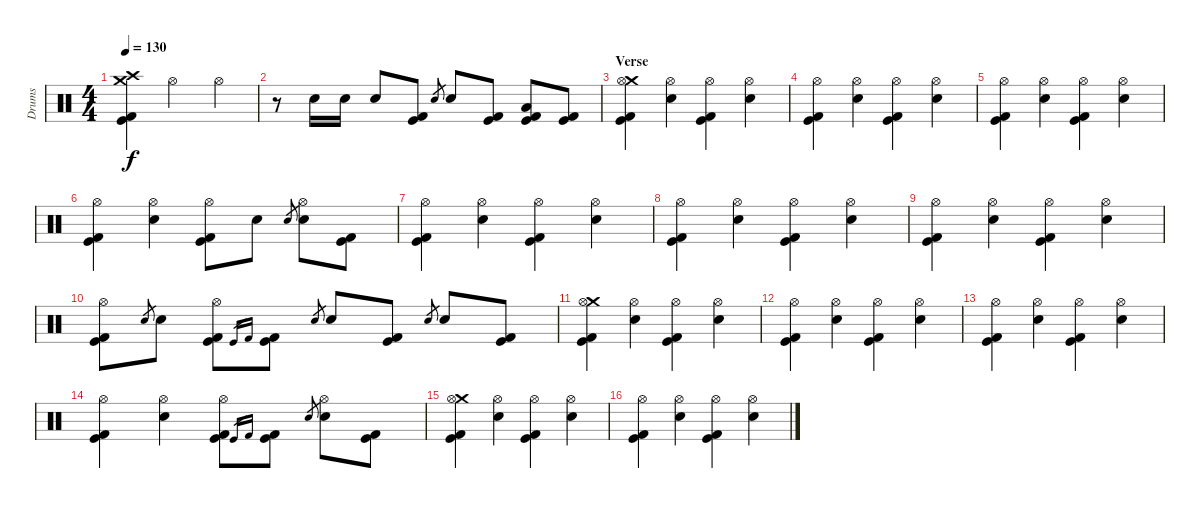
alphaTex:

\track ("Drums" "Drums") {instrument percussion}
\staff {score}
\articulation defaults
\ts (4 4)
\tempo 130
\clef neutral
\ks c
("Crash medium (hit)" "Crash high (hit)" "Kick (hit)" "Kick (hit) 2").4{dy f} "Hi-Hat (open)".2 "Hi-Hat (open)".4 |
r.8 "Electric Snare (hit)".16 "Electric Snare (hit)".16 "Electric Snare (hit)".8 ("Kick (hit)" "Kick (hit) 2").8 "Electric Snare (hit)".8{gr} "Electric Snare (hit)".8 ("Kick (hit)" "Kick (hit) 2").8 ("Low Floor Tom (hit)" "Kick (hit)" "Kick (hit) 2").8 ("Kick (hit)" "Kick (hit) 2").8 |
\section ("" "Verse")
("Crash medium (hit)" "Hi-Hat (open)" "Kick (hit)" "Kick (hit) 2").4 ("Hi-Hat (open)" "Electric Snare (hit)").4 ("Hi-Hat (open)" "Kick (hit)" "Kick (hit) 2").4 ("Hi-Hat (open)" "Electric Snare (hit)").4 |
("Hi-Hat (open)" "Kick (hit)" "Kick (hit) 2").4 ("Hi-Hat (open)" "Electric Snare (hit)").4 ("Hi-Hat (open)" "Kick (hit)" "Kick (hit) 2").4 ("Hi-Hat (open)" "Electric Snare (hit)").4 |
("Hi-Hat (open)" "Kick (hit)" "Kick (hit) 2").4 ("Hi-Hat (open)" "Electric Snare (hit)").4 ("Hi-Hat (open)" "Kick (hit)" "Kick (hit) 2").4 ("Hi-Hat (open)" "Electric Snare (hit)").4 |
("Hi-Hat (open)" "Kick (hit)" "Kick (hit) 2").4 ("Hi-Hat (open)" "Electric Snare (hit)").4 ("Hi-Hat (open)" "Kick (hit)" "Kick (hit) 2").8 "Electric Snare (hit)".8 "Electric Snare (hit)".8{gr} ("Hi-Hat (open)" "Electric Snare (hit)").8 ("Kick (hit)" "Kick (hit) 2").8 |
("Hi-Hat (open)" "Kick (hit)" "Kick (hit) 2").4 ("Hi-Hat (open)" "Electric Snare (hit)").4 ("Hi-Hat (open)" "Kick (hit)" "Kick (hit) 2").4 ("Hi-Hat (open)" "Electric Snare (hit)").4 |
("Hi-Hat (open)" "Kick (hit)" "Kick (hit) 2").4 ("Hi-Hat (open)" "Electric Snare (hit)").4 ("Hi-Hat (open)" "Kick (hit)" "Kick (hit) 2").4 ("Hi-Hat (open)" "Electric Snare (hit)").4 |
("Hi-Hat (open)" "Kick (hit)" "Kick (hit) 2").4 ("Hi-Hat (open)" "Electric Snare (hit)").4 ("Hi-Hat (open)" "Kick (hit)" "Kick (hit) 2").4 ("Hi-Hat (open)" "Electric Snare (hit)").4 |
("Hi-Hat (open)" "Kick (hit)" "Kick (hit) 2").8 "Electric Snare (hit)".8{gr} "Electric Snare (hit)".8 ("Hi-Hat (open)" "Kick (hit)" "Kick (hit) 2").8 "Kick (hit)".16{gr} "Kick (hit) 2".16{gr} ("Kick (hit)" "Kick (hit) 2").8 "Electric Snare (hit)".8{gr} "Electric Snare (hit)".8 ("Kick (hit)" "Kick (hit) 2").8 "Electric Snare (hit)".8{gr} "Electric Snare (hit)".8 ("Kick (hit)" "Kick (hit) 2").8 |
("Crash medium (hit)" "Hi-Hat (open)" "Kick (hit)" "Kick (hit) 2").4 ("Hi-Hat (open)" "Electric Snare (hit)").4 ("Hi-Hat (open)" "Kick (hit)" "Kick (hit) 2").4 ("Hi-Hat (open)" "Electric Snare (hit)").4 |
("Hi-Hat (open)" "Kick (hit)" "Kick (hit) 2").4 ("Hi-Hat (open)" "Electric Snare (hit)").4 ("Hi-Hat (open)" "Kick (hit)" "Kick (hit) 2").4 ("Hi-Hat (open)" "Electric Snare (hit)").4 |
("Hi-Hat (open)" "Kick (hit)" "Kick (hit) 2").4 ("Hi-Hat (open)" "Electric Snare (hit)").4 ("Hi-Hat (open)" "Kick (hit)" "Kick (hit) 2").4 ("Hi-Hat (open)" "Electric Snare (hit)").4 |
("Hi-Hat (open)" "Kick (hit)" "Kick (hit) 2").4 ("Hi-Hat (open)" "Electric Snare (hit)").4 ("Hi-Hat (open)" "Kick (hit)" "Kick (hit) 2").8 "Kick (hit)".16{gr} "Kick (hit) 2".16{gr} ("Kick (hit)" "Kick (hit) 2").8 "Electric Snare (hit)".8{gr} ("Hi-Hat (open)" "Electric Snare (hit)").8 ("Kick (hit)" "Kick (hit) 2").8 |
("Crash medium (hit)" "Hi-Hat (open)" "Kick (hit)" "Kick (hit) 2").4 ("Hi-Hat (open)" "Electric Snare (hit)").4 ("Hi-Hat (open)" "Kick (hit)" "Kick (hit) 2").4 ("Hi-Hat (open)" "Electric Snare (hit)").4 |
("Hi-Hat (open)" "Kick (hit)" "Kick (hit) 2").4 ("Hi-Hat (open)" "Electric Snare (hit)").4 ("Hi-Hat (open)" "Kick (hit)" "Kick (hit) 2").4 ("Hi-Hat (open)" "Electric Snare (hit)").4
